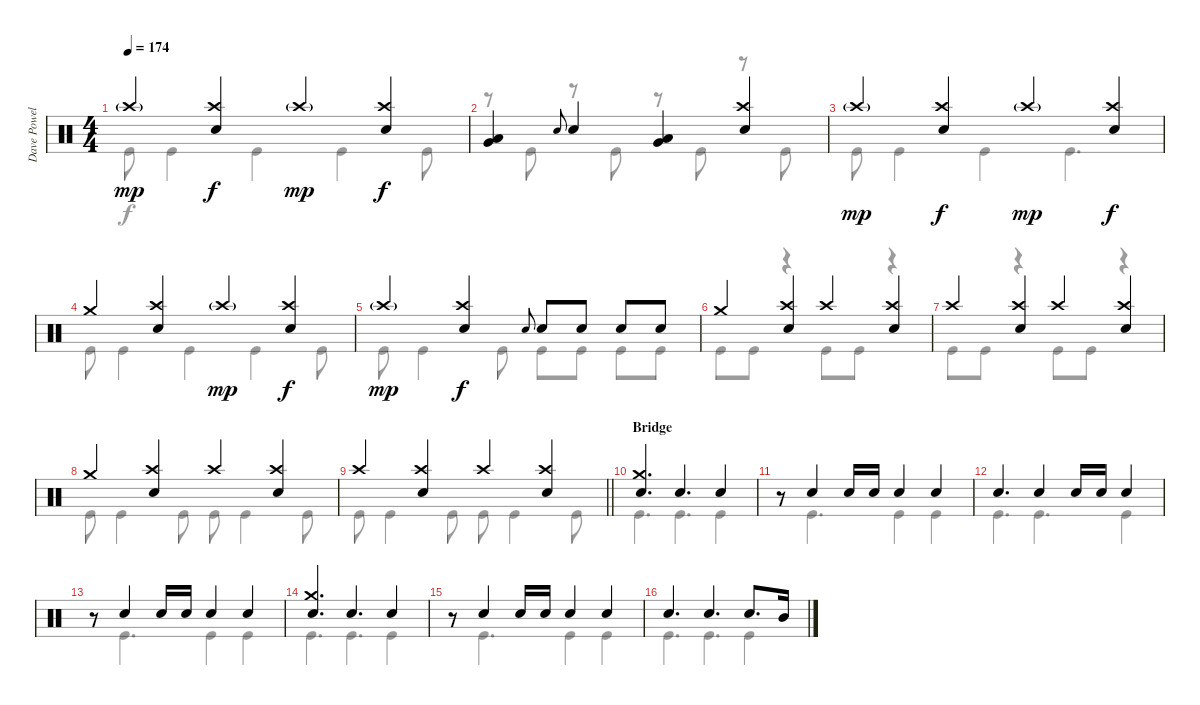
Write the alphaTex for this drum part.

\track ("Dave Powell" "Dave Powel") {instrument percussion}
\staff {score}
\articulation defaults
\voice
\ts (4 4)
\tempo 174
\clef neutral
\ks c "Crash high (hit)"{g}.4{dy mp}
("Crash high (hit)" "Electric Snare (hit)").4{dy f} "Crash high (hit)"{g}.4{dy mp} ("Crash high (hit)" "Electric Snare (hit)").4{dy f} |
("Low Tom (hit)" "Very Low Tom (hit)").4 "Electric Snare (hit)".8{gr onbeat} "Electric Snare (hit)".4 ("Low Tom (hit)" "Very Low Tom (hit)").4 ("Crash high (hit)" "Electric Snare (hit)").4 |
"Crash high (hit)"{g}.4{dy mp} ("Crash high (hit)" "Electric Snare (hit)").4{dy f} "Crash high (hit)"{g}.4{dy mp} ("Crash high (hit)" "Electric Snare (hit)").4{dy f} |
"Crash medium (hit)".4 ("Crash high (hit)" "Electric Snare (hit)").4 "Crash high (hit)"{g}.4{dy mp} ("Crash high (hit)" "Electric Snare (hit)").4{dy f} |
"Crash high (hit)"{g}.4{dy mp} ("Crash high (hit)" "Electric Snare (hit)").4{dy f} "Electric Snare (hit)".8{gr onbeat} "Electric Snare (hit)".8 "Electric Snare (hit)".8 "Electric Snare (hit)".8 "Electric Snare (hit)".8 |
"Crash medium (hit)".4 ("Crash high (hit)" "Electric Snare (hit)").4 "Crash high (hit)".4 ("Crash high (hit)" "Electric Snare (hit)").4 |
"Crash high (hit)".4 ("Crash high (hit)" "Electric Snare (hit)").4 "Crash high (hit)".4 ("Crash high (hit)" "Electric Snare (hit)").4 |
"Crash medium (hit)".4 ("Crash high (hit)" "Electric Snare (hit)").4 "Crash high (hit)".4 ("Crash high (hit)" "Electric Snare (hit)").4 |
\barLineRight lightlight "Crash high (hit)".4
("Crash high (hit)" "Electric Snare (hit)").4 "Crash high (hit)".4 ("Crash high (hit)" "Electric Snare (hit)").4 |
\section ("" "Bridge")
("Crash medium (hit)" "Electric Snare (hit)").4{d} "Electric Snare (hit)".4{d} "Electric Snare (hit)".4 |
r.8 "Electric Snare (hit)".4 "Electric Snare (hit)".16 "Electric Snare (hit)".16 "Electric Snare (hit)".4 "Electric Snare (hit)".4 |
"Electric Snare (hit)".4{d} "Electric Snare (hit)".4 "Electric Snare (hit)".16 "Electric Snare (hit)".16 "Electric Snare (hit)".4 |
r.8 "Electric Snare (hit)".4 "Electric Snare (hit)".16 "Electric Snare (hit)".16 "Electric Snare (hit)".4 "Electric Snare (hit)".4 |
("Crash medium (hit)" "Electric Snare (hit)").4{d} "Electric Snare (hit)".4{d} "Electric Snare (hit)".4 |
r.8 "Electric Snare (hit)".4 "Electric Snare (hit)".16 "Electric Snare (hit)".16 "Electric Snare (hit)".4 "Electric Snare (hit)".4 |
"Electric Snare (hit)".4{d} "Electric Snare (hit)".4{d} "Electric Snare (hit)".8{d} "Mid Tom (hit)".16
\voice
\clef neutral
\ottava regular
\simile none
\ks c "Kick (hit)".8{dy f} "Kick (hit)".4 "Kick (hit)".4 "Kick (hit)".4 "Kick (hit)".8
|
r.8 "Kick (hit)".8 r.8 "Kick (hit)".8 r.8 "Kick (hit)".8 r.8 "Kick (hit)".8 |
"Kick (hit)".8 "Kick (hit)".4 "Kick (hit)".4 "Kick (hit)".4{d} |
"Kick (hit)".8 "Kick (hit)".4 "Kick (hit)".4 "Kick (hit)".4 "Kick (hit)".8 |
"Kick (hit)".8 "Kick (hit)".4 "Kick (hit)".8 "Kick (hit)".8 "Kick (hit)".8 "Kick (hit)".8 "Kick (hit)".8 |
"Kick (hit)".8 "Kick (hit)".8 r.4 "Kick (hit)".8 "Kick (hit)".8 r.4 |
"Kick (hit)".8 "Kick (hit)".8 r.4 "Kick (hit)".8 "Kick (hit)".8 r.4 |
"Kick (hit)".8 "Kick (hit)".4 "Kick (hit)".8 "Kick (hit)".8 "Kick (hit)".4 "Kick (hit)".8 |
\barLineRight lightlight "Kick (hit)".8 "Kick (hit)".4 "Kick (hit)".8 "Kick (hit)".8 "Kick (hit)".4 "Kick (hit)".8
|
"Kick (hit)".4{d} "Kick (hit)".4{d} "Kick (hit)".4 |
r.8 "Kick (hit)".4{d} "Kick (hit)".4 "Kick (hit)".4 |
"Kick (hit)".4{d} "Kick (hit)".4{d} "Kick (hit)".4 |
r.8 "Kick (hit)".4{d} "Kick (hit)".4 "Kick (hit)".4 |
"Kick (hit)".4{d} "Kick (hit)".4{d} "Kick (hit)".4 |
r.8 "Kick (hit)".4{d} "Kick (hit)".4 "Kick (hit)".4 |
"Kick (hit)".4{d} "Kick (hit)".4{d} "Kick (hit)".4
